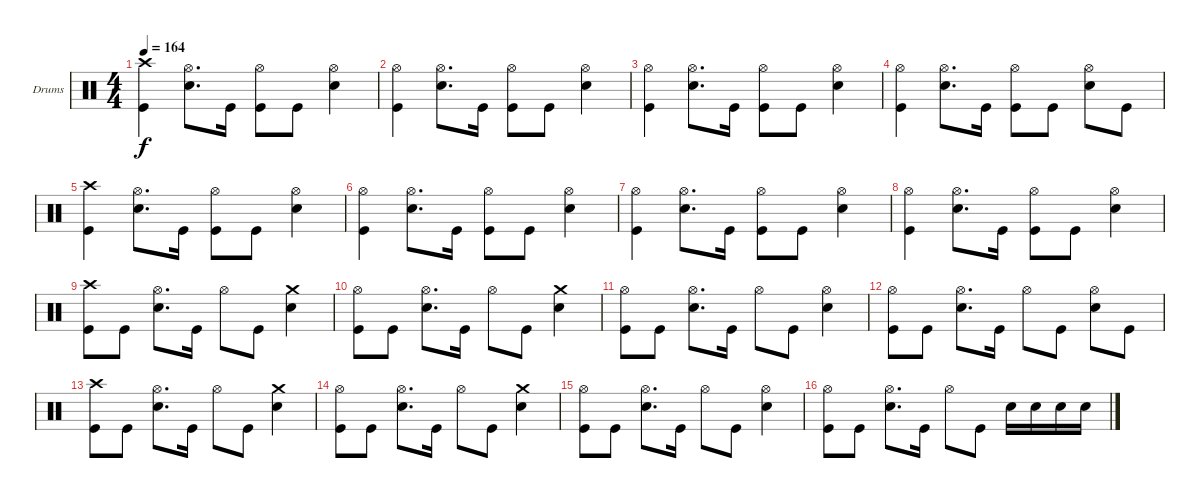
\defaultSystemsLayout 4
\bracketExtendMode groupsimilarinstruments
\firstSystemTrackNameOrientation horizontal
\otherSystemsTrackNameOrientation horizontal
\track ("Drumkit" "Drums") {instrument percussion}
\staff {score}
\articulation defaults
\ts (4 4)
\tempo 164
\clef neutral
\ks c
("Kick (hit)" "Crash high (hit)").4{dy f} ("Hi-Hat (open)" "Snare (hit) 2").8{d} "Kick (hit)".16 ("Hi-Hat (open)" "Kick (hit)").8 "Kick (hit)".8 ("Snare (hit) 2" "Hi-Hat (open)").4 |
("Kick (hit)" "Hi-Hat (open)").4 ("Hi-Hat (open)" "Snare (hit) 2").8{d} "Kick (hit)".16 ("Hi-Hat (open)" "Kick (hit)").8 "Kick (hit)".8 ("Snare (hit) 2" "Hi-Hat (open)").4 |
("Kick (hit)" "Hi-Hat (open)").4 ("Hi-Hat (open)" "Snare (hit) 2").8{d} "Kick (hit)".16 ("Hi-Hat (open)" "Kick (hit)").8 "Kick (hit)".8 ("Snare (hit) 2" "Hi-Hat (open)").4 |
("Kick (hit)" "Hi-Hat (open)").4 ("Hi-Hat (open)" "Snare (hit) 2").8{d} "Kick (hit)".16 ("Hi-Hat (open)" "Kick (hit)").8 "Kick (hit)".8 ("Snare (hit) 2" "Hi-Hat (open)").8 "Kick (hit)".8 |
("Kick (hit)" "Crash high (hit)").4 ("Hi-Hat (open)" "Snare (hit) 2").8{d} "Kick (hit)".16 ("Hi-Hat (open)" "Kick (hit)").8 "Kick (hit)".8 ("Snare (hit) 2" "Hi-Hat (open)").4 |
("Kick (hit)" "Hi-Hat (open)").4 ("Hi-Hat (open)" "Snare (hit) 2").8{d} "Kick (hit)".16 ("Hi-Hat (open)" "Kick (hit)").8 "Kick (hit)".8 ("Snare (hit) 2" "Hi-Hat (open)").4 |
("Kick (hit)" "Hi-Hat (open)").4 ("Hi-Hat (open)" "Snare (hit) 2").8{d} "Kick (hit)".16 ("Hi-Hat (open)" "Kick (hit)").8 "Kick (hit)".8 ("Snare (hit) 2" "Hi-Hat (open)").4 |
("Kick (hit)" "Hi-Hat (open)").4 ("Hi-Hat (open)" "Snare (hit) 2").8{d} "Kick (hit)".16 ("Hi-Hat (open)" "Kick (hit)").8 "Kick (hit)".8 ("Snare (hit) 2" "Hi-Hat (open)").4 |
("Kick (hit)" "Crash high (hit)").8 "Kick (hit)".8 ("Snare (hit) 2" "Hi-Hat (open)").8{d} "Kick (hit)".16 "Hi-Hat (open)".8 "Kick (hit)".8 ("Snare (hit) 2" "Crash medium (hit)").4 |
("Kick (hit)" "Hi-Hat (open)").8 "Kick (hit)".8 ("Snare (hit) 2" "Hi-Hat (open)").8{d} "Kick (hit)".16 "Hi-Hat (open)".8 "Kick (hit)".8 ("Snare (hit) 2" "Crash medium (hit)").4 |
("Kick (hit)" "Hi-Hat (open)").8 "Kick (hit)".8 ("Snare (hit) 2" "Hi-Hat (open)").8{d} "Kick (hit)".16 "Hi-Hat (open)".8 "Kick (hit)".8 ("Snare (hit) 2" "Hi-Hat (open)").4 |
("Kick (hit)" "Hi-Hat (open)").8 "Kick (hit)".8 ("Snare (hit) 2" "Hi-Hat (open)").8{d} "Kick (hit)".16 "Hi-Hat (open)".8 "Kick (hit)".8 ("Snare (hit) 2" "Hi-Hat (open)").8 "Kick (hit)".8 |
("Kick (hit)" "Crash high (hit)").8 "Kick (hit)".8 ("Snare (hit) 2" "Hi-Hat (open)").8{d} "Kick (hit)".16 "Hi-Hat (open)".8 "Kick (hit)".8 ("Snare (hit) 2" "Crash medium (hit)").4 |
("Kick (hit)" "Hi-Hat (open)").8 "Kick (hit)".8 ("Snare (hit) 2" "Hi-Hat (open)").8{d} "Kick (hit)".16 "Hi-Hat (open)".8 "Kick (hit)".8 ("Snare (hit) 2" "Crash medium (hit)").4 |
("Kick (hit)" "Hi-Hat (open)").8 "Kick (hit)".8 ("Snare (hit) 2" "Hi-Hat (open)").8{d} "Kick (hit)".16 "Hi-Hat (open)".8 "Kick (hit)".8 ("Snare (hit) 2" "Hi-Hat (open)").4 |
("Kick (hit)" "Hi-Hat (open)").8 "Kick (hit)".8 ("Snare (hit) 2" "Hi-Hat (open)").8{d} "Kick (hit)".16 "Hi-Hat (open)".8 "Kick (hit)".8 "Snare (hit) 2".16 "Snare (hit) 2".16 "Snare (hit) 2".16 "Snare (hit) 2".16
